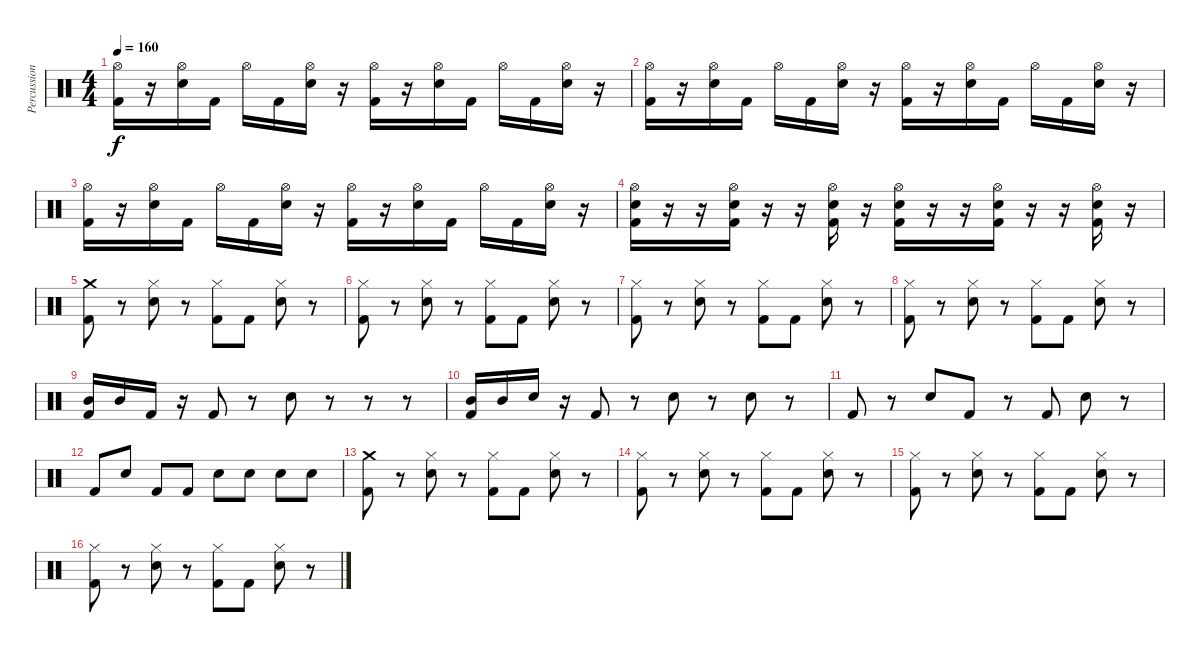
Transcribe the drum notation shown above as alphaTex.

\track ("Percussion" "Percussion") {instrument percussion}
\staff {score}
\articulation defaults
\ts (4 4)
\tempo 160
\clef neutral
\ks c
("Hi-Hat (open)" "Kick (hit) 2").16{dy f} r.16 ("Hi-Hat (open)" "Snare (hit) 2").16 "Kick (hit) 2".16 "Hi-Hat (open)".16 "Kick (hit) 2".16 ("Hi-Hat (open)" "Snare (hit) 2").16 r.16 ("Hi-Hat (open)" "Kick (hit) 2").16 r.16 ("Hi-Hat (open)" "Snare (hit) 2").16 "Kick (hit) 2".16 "Hi-Hat (open)".16 "Kick (hit) 2".16 ("Hi-Hat (open)" "Snare (hit) 2").16 r.16 |
("Hi-Hat (open)" "Kick (hit) 2").16 r.16 ("Hi-Hat (open)" "Snare (hit) 2").16 "Kick (hit) 2".16 "Hi-Hat (open)".16 "Kick (hit) 2".16 ("Hi-Hat (open)" "Snare (hit) 2").16 r.16 ("Hi-Hat (open)" "Kick (hit) 2").16 r.16 ("Hi-Hat (open)" "Snare (hit) 2").16 "Kick (hit) 2".16 "Hi-Hat (open)".16 "Kick (hit) 2".16 ("Hi-Hat (open)" "Snare (hit) 2").16 r.16 |
("Hi-Hat (open)" "Kick (hit) 2").16 r.16 ("Hi-Hat (open)" "Snare (hit) 2").16 "Kick (hit) 2".16 "Hi-Hat (open)".16 "Kick (hit) 2".16 ("Hi-Hat (open)" "Snare (hit) 2").16 r.16 ("Hi-Hat (open)" "Kick (hit) 2").16 r.16 ("Hi-Hat (open)" "Snare (hit) 2").16 "Kick (hit) 2".16 "Hi-Hat (open)".16 "Kick (hit) 2".16 ("Hi-Hat (open)" "Snare (hit) 2").16 r.16 |
("Hi-Hat (open)" "Kick (hit) 2" "Snare (hit) 2").16 r.16 r.16 ("Hi-Hat (open)" "Kick (hit) 2" "Snare (hit) 2").16 r.16 r.16 ("Hi-Hat (open)" "Kick (hit) 2" "Snare (hit) 2").16 r.16 ("Hi-Hat (open)" "Kick (hit) 2" "Snare (hit) 2").16 r.16 r.16 ("Hi-Hat (open)" "Kick (hit) 2" "Snare (hit) 2").16 r.16 r.16 ("Hi-Hat (open)" "Kick (hit) 2" "Snare (hit) 2").16 r.16 |
("Crash medium (hit)" "Kick (hit) 2").8 r.8 ("Hi-Hat (closed)" "Snare (hit) 2").8 r.8 ("Hi-Hat (closed)" "Kick (hit) 2").8 "Kick (hit) 2".8 ("Hi-Hat (closed)" "Snare (hit) 2").8 r.8 |
("Hi-Hat (closed)" "Kick (hit) 2").8 r.8 ("Hi-Hat (closed)" "Snare (hit) 2").8 r.8 ("Hi-Hat (closed)" "Kick (hit) 2").8 "Kick (hit) 2".8 ("Hi-Hat (closed)" "Snare (hit) 2").8 r.8 |
("Hi-Hat (closed)" "Kick (hit) 2").8 r.8 ("Hi-Hat (closed)" "Snare (hit) 2").8 r.8 ("Hi-Hat (closed)" "Kick (hit) 2").8 "Kick (hit) 2".8 ("Hi-Hat (closed)" "Snare (hit) 2").8 r.8 |
("Hi-Hat (closed)" "Kick (hit) 2").8 r.8 ("Hi-Hat (closed)" "Snare (hit) 2").8 r.8 ("Hi-Hat (closed)" "Kick (hit) 2").8 "Kick (hit) 2".8 ("Hi-Hat (closed)" "Snare (hit) 2").8 r.8 |
("Kick (hit) 2" "Mid Tom (hit)").16 "Mid Tom (hit)".16 "Kick (hit) 2".16 r.16 "Kick (hit) 2".8 r.8 "Snare (hit) 2".8 r.8 r.8 r.8 |
("Kick (hit) 2" "Mid Tom (hit)").16 "Mid Tom (hit)".16 "Snare (hit)".16 r.16 "Kick (hit) 2".8 r.8 "Snare (hit) 2".8 r.8 "Snare (hit) 2".8 r.8 |
"Kick (hit) 2".8 r.8 "Snare (hit) 2".8 "Kick (hit) 2".8 r.8 "Kick (hit) 2".8 "Snare (hit) 2".8 r.8 |
"Kick (hit) 2".8 "Snare (hit) 2".8 "Kick (hit) 2".8 "Kick (hit) 2".8 "Snare (hit) 2".8 "Snare (hit) 2".8 "Snare (hit) 2".8 "Snare (hit) 2".8 |
("Crash medium (hit)" "Kick (hit) 2").8 r.8 ("Hi-Hat (closed)" "Snare (hit) 2").8 r.8 ("Hi-Hat (closed)" "Kick (hit) 2").8 "Kick (hit) 2".8 ("Hi-Hat (closed)" "Snare (hit) 2").8 r.8 |
("Hi-Hat (closed)" "Kick (hit) 2").8 r.8 ("Hi-Hat (closed)" "Snare (hit) 2").8 r.8 ("Hi-Hat (closed)" "Kick (hit) 2").8 "Kick (hit) 2".8 ("Hi-Hat (closed)" "Snare (hit) 2").8 r.8 |
("Hi-Hat (closed)" "Kick (hit) 2").8 r.8 ("Hi-Hat (closed)" "Snare (hit) 2").8 r.8 ("Hi-Hat (closed)" "Kick (hit) 2").8 "Kick (hit) 2".8 ("Hi-Hat (closed)" "Snare (hit) 2").8 r.8 |
("Hi-Hat (closed)" "Kick (hit) 2").8 r.8 ("Hi-Hat (closed)" "Snare (hit) 2").8 r.8 ("Hi-Hat (closed)" "Kick (hit) 2").8 "Kick (hit) 2".8 ("Hi-Hat (closed)" "Snare (hit) 2").8 r.8
